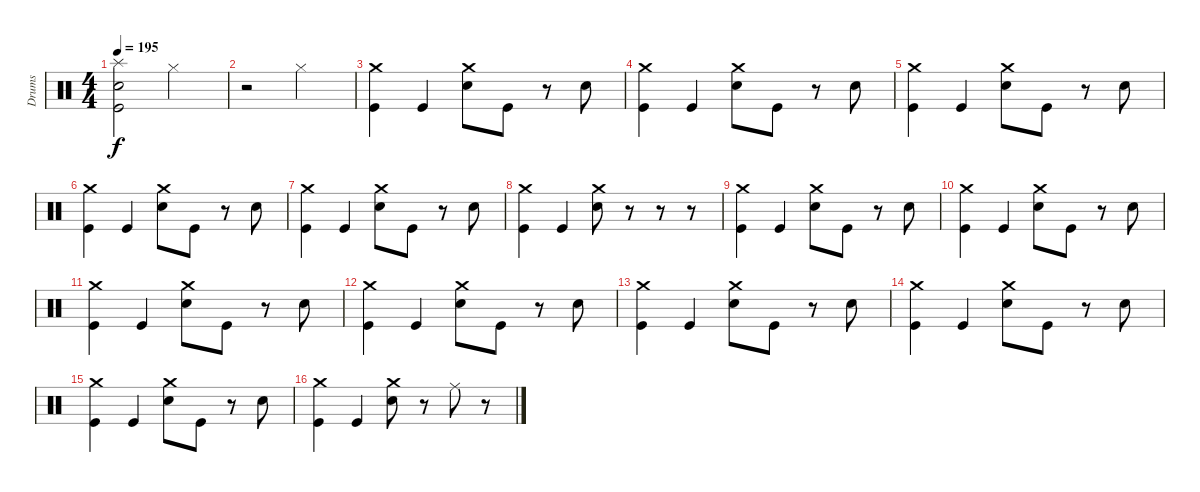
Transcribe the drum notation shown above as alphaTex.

\track ("Drums" "Drums") {instrument percussion}
\staff {score}
\articulation defaults
\ts (4 4)
\tempo 195
\clef neutral
\ks c
("Splash (hit)" "Electric Snare (hit)" "Kick (hit)").2{dy f} "Hi-Hat (closed)".2 |
r.2 "Hi-Hat (closed)".2 |
("Crash medium (hit)" "Kick (hit)").4 "Kick (hit)".4 ("Crash medium (hit)" "Electric Snare (hit)").8 "Kick (hit)".8 r.8 "Electric Snare (hit)".8 |
("Crash medium (hit)" "Kick (hit)").4 "Kick (hit)".4 ("Crash medium (hit)" "Electric Snare (hit)").8 "Kick (hit)".8 r.8 "Electric Snare (hit)".8 |
("Crash medium (hit)" "Kick (hit)").4 "Kick (hit)".4 ("Crash medium (hit)" "Electric Snare (hit)").8 "Kick (hit)".8 r.8 "Electric Snare (hit)".8 |
("Crash medium (hit)" "Kick (hit)").4 "Kick (hit)".4 ("Crash medium (hit)" "Electric Snare (hit)").8 "Kick (hit)".8 r.8 "Electric Snare (hit)".8 |
("Crash medium (hit)" "Kick (hit)").4 "Kick (hit)".4 ("Crash medium (hit)" "Electric Snare (hit)").8 "Kick (hit)".8 r.8 "Electric Snare (hit)".8 |
("Crash medium (hit)" "Kick (hit)").4 "Kick (hit)".4 ("Crash medium (hit)" "Electric Snare (hit)").8 r.8 r.8 r.8 |
("Crash medium (hit)" "Kick (hit)").4 "Kick (hit)".4 ("Crash medium (hit)" "Electric Snare (hit)").8 "Kick (hit)".8 r.8 "Electric Snare (hit)".8 |
("Crash medium (hit)" "Kick (hit)").4 "Kick (hit)".4 ("Crash medium (hit)" "Electric Snare (hit)").8 "Kick (hit)".8 r.8 "Electric Snare (hit)".8 |
("Crash medium (hit)" "Kick (hit)").4 "Kick (hit)".4 ("Crash medium (hit)" "Electric Snare (hit)").8 "Kick (hit)".8 r.8 "Electric Snare (hit)".8 |
("Crash medium (hit)" "Kick (hit)").4 "Kick (hit)".4 ("Crash medium (hit)" "Electric Snare (hit)").8 "Kick (hit)".8 r.8 "Electric Snare (hit)".8 |
("Crash medium (hit)" "Kick (hit)").4 "Kick (hit)".4 ("Crash medium (hit)" "Electric Snare (hit)").8 "Kick (hit)".8 r.8 "Electric Snare (hit)".8 |
("Crash medium (hit)" "Kick (hit)").4 "Kick (hit)".4 ("Crash medium (hit)" "Electric Snare (hit)").8 "Kick (hit)".8 r.8 "Electric Snare (hit)".8 |
("Crash medium (hit)" "Kick (hit)").4 "Kick (hit)".4 ("Crash medium (hit)" "Electric Snare (hit)").8 "Kick (hit)".8 r.8 "Electric Snare (hit)".8 |
("Crash medium (hit)" "Kick (hit)").4 "Kick (hit)".4 ("Crash medium (hit)" "Electric Snare (hit)").8 r.8 "Ride (middle)".8 r.8
